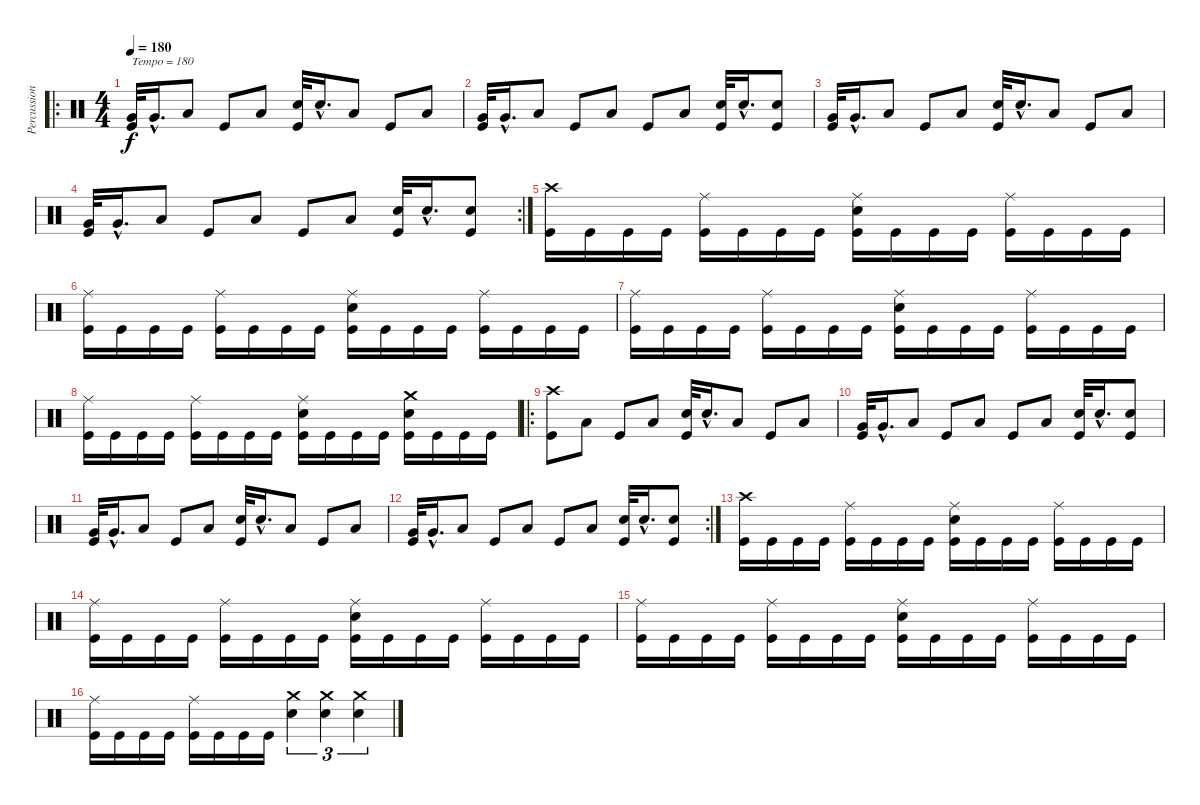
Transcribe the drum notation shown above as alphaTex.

\track ("Percussion" "Percussion") {instrument percussion}
\staff {score}
\articulation defaults
\ro
\ts (4 4)
\tempo 180
\clef neutral
\ks c
("Very Low Tom (hit)" "Kick (hit)").32{txt "Tempo = 180" dy f} "Very Low Tom (hit)"{hac}.16{d} "Low Tom (hit)".8 "Kick (hit)".8 "Low Tom (hit)".8 ("Electric Snare (hit)" "Kick (hit)").32 "Electric Snare (hit)"{hac}.16{d} "Low Tom (hit)".8 "Kick (hit)".8 "Low Tom (hit)".8 |
("Very Low Tom (hit)" "Kick (hit)").32 "Very Low Tom (hit)"{hac}.16{d} "Low Tom (hit)".8 "Kick (hit)".8 "Low Tom (hit)".8 "Kick (hit)".8 "Low Tom (hit)".8 ("Electric Snare (hit)" "Kick (hit)").32 "Electric Snare (hit)"{hac}.16{d} ("Electric Snare (hit)" "Kick (hit)").8 |
("Very Low Tom (hit)" "Kick (hit)").32 "Very Low Tom (hit)"{hac}.16{d} "Low Tom (hit)".8 "Kick (hit)".8 "Low Tom (hit)".8 ("Electric Snare (hit)" "Kick (hit)").32 "Electric Snare (hit)"{hac}.16{d} "Low Tom (hit)".8 "Kick (hit)".8 "Low Tom (hit)".8 |
\rc 2
("Very Low Tom (hit)" "Kick (hit)").32 "Very Low Tom (hit)"{hac}.16{d} "Low Tom (hit)".8 "Kick (hit)".8 "Low Tom (hit)".8 "Kick (hit)".8 "Low Tom (hit)".8 ("Electric Snare (hit)" "Kick (hit)").32 "Electric Snare (hit)"{hac}.16{d} ("Electric Snare (hit)" "Kick (hit)").8 |
("Crash high (hit)" "Kick (hit)").16 "Kick (hit)".16 "Kick (hit)".16 "Kick (hit)".16 ("Ride (middle)" "Kick (hit)").16 "Kick (hit)".16 "Kick (hit)".16 "Kick (hit)".16 ("Ride (middle)" "Electric Snare (hit)" "Kick (hit)").16 "Kick (hit)".16 "Kick (hit)".16 "Kick (hit)".16 ("Ride (middle)" "Kick (hit)").16 "Kick (hit)".16 "Kick (hit)".16 "Kick (hit)".16 |
("Ride (middle)" "Kick (hit)").16 "Kick (hit)".16 "Kick (hit)".16 "Kick (hit)".16 ("Ride (middle)" "Kick (hit)").16 "Kick (hit)".16 "Kick (hit)".16 "Kick (hit)".16 ("Ride (middle)" "Electric Snare (hit)" "Kick (hit)").16 "Kick (hit)".16 "Kick (hit)".16 "Kick (hit)".16 ("Ride (middle)" "Kick (hit)").16 "Kick (hit)".16 "Kick (hit)".16 "Kick (hit)".16 |
("Ride (middle)" "Kick (hit)").16 "Kick (hit)".16 "Kick (hit)".16 "Kick (hit)".16 ("Ride (middle)" "Kick (hit)").16 "Kick (hit)".16 "Kick (hit)".16 "Kick (hit)".16 ("Ride (middle)" "Electric Snare (hit)" "Kick (hit)").16 "Kick (hit)".16 "Kick (hit)".16 "Kick (hit)".16 ("Ride (middle)" "Kick (hit)").16 "Kick (hit)".16 "Kick (hit)".16 "Kick (hit)".16 |
("Ride (middle)" "Kick (hit)").16 "Kick (hit)".16 "Kick (hit)".16 "Kick (hit)".16 ("Ride (middle)" "Kick (hit)").16 "Kick (hit)".16 "Kick (hit)".16 "Kick (hit)".16 ("Ride (middle)" "Electric Snare (hit)" "Kick (hit)").16 "Kick (hit)".16 "Kick (hit)".16 "Kick (hit)".16 ("Crash medium (hit)" "Electric Snare (hit)" "Kick (hit)").16 "Kick (hit)".16 "Kick (hit)".16 "Kick (hit)".16 |
\ro
("Crash high (hit)" "Kick (hit)").8 "Low Tom (hit)".8 "Kick (hit)".8 "Low Tom (hit)".8 ("Electric Snare (hit)" "Kick (hit)").32 "Electric Snare (hit)"{hac}.16{d} "Low Tom (hit)".8 "Kick (hit)".8 "Low Tom (hit)".8 |
("Very Low Tom (hit)" "Kick (hit)").32 "Very Low Tom (hit)"{hac}.16{d} "Low Tom (hit)".8 "Kick (hit)".8 "Low Tom (hit)".8 "Kick (hit)".8 "Low Tom (hit)".8 ("Electric Snare (hit)" "Kick (hit)").32 "Electric Snare (hit)"{hac}.16{d} ("Electric Snare (hit)" "Kick (hit)").8 |
("Very Low Tom (hit)" "Kick (hit)").32 "Very Low Tom (hit)"{hac}.16{d} "Low Tom (hit)".8 "Kick (hit)".8 "Low Tom (hit)".8 ("Electric Snare (hit)" "Kick (hit)").32 "Electric Snare (hit)"{hac}.16{d} "Low Tom (hit)".8 "Kick (hit)".8 "Low Tom (hit)".8 |
\rc 2
("Very Low Tom (hit)" "Kick (hit)").32 "Very Low Tom (hit)"{hac}.16{d} "Low Tom (hit)".8 "Kick (hit)".8 "Low Tom (hit)".8 "Kick (hit)".8 "Low Tom (hit)".8 ("Electric Snare (hit)" "Kick (hit)").32 "Electric Snare (hit)"{hac}.16{d} ("Electric Snare (hit)" "Kick (hit)").8 |
("Crash high (hit)" "Kick (hit)").16 "Kick (hit)".16 "Kick (hit)".16 "Kick (hit)".16 ("Ride (middle)" "Kick (hit)").16 "Kick (hit)".16 "Kick (hit)".16 "Kick (hit)".16 ("Ride (middle)" "Electric Snare (hit)" "Kick (hit)").16 "Kick (hit)".16 "Kick (hit)".16 "Kick (hit)".16 ("Ride (middle)" "Kick (hit)").16 "Kick (hit)".16 "Kick (hit)".16 "Kick (hit)".16 |
("Ride (middle)" "Kick (hit)").16 "Kick (hit)".16 "Kick (hit)".16 "Kick (hit)".16 ("Ride (middle)" "Kick (hit)").16 "Kick (hit)".16 "Kick (hit)".16 "Kick (hit)".16 ("Ride (middle)" "Electric Snare (hit)" "Kick (hit)").16 "Kick (hit)".16 "Kick (hit)".16 "Kick (hit)".16 ("Ride (middle)" "Kick (hit)").16 "Kick (hit)".16 "Kick (hit)".16 "Kick (hit)".16 |
("Ride (middle)" "Kick (hit)").16 "Kick (hit)".16 "Kick (hit)".16 "Kick (hit)".16 ("Ride (middle)" "Kick (hit)").16 "Kick (hit)".16 "Kick (hit)".16 "Kick (hit)".16 ("Ride (middle)" "Electric Snare (hit)" "Kick (hit)").16 "Kick (hit)".16 "Kick (hit)".16 "Kick (hit)".16 ("Ride (middle)" "Kick (hit)").16 "Kick (hit)".16 "Kick (hit)".16 "Kick (hit)".16 |
("Ride (middle)" "Kick (hit)").16 "Kick (hit)".16 "Kick (hit)".16 "Kick (hit)".16 ("Ride (middle)" "Kick (hit)").16 "Kick (hit)".16 "Kick (hit)".16 "Kick (hit)".16 ("Crash medium (hit)" "Electric Snare (hit)").4{tu (3 2)} ("Crash medium (hit)" "Electric Snare (hit)").4{tu (3 2)} ("Crash medium (hit)" "Electric Snare (hit)").4{tu (3 2)}
